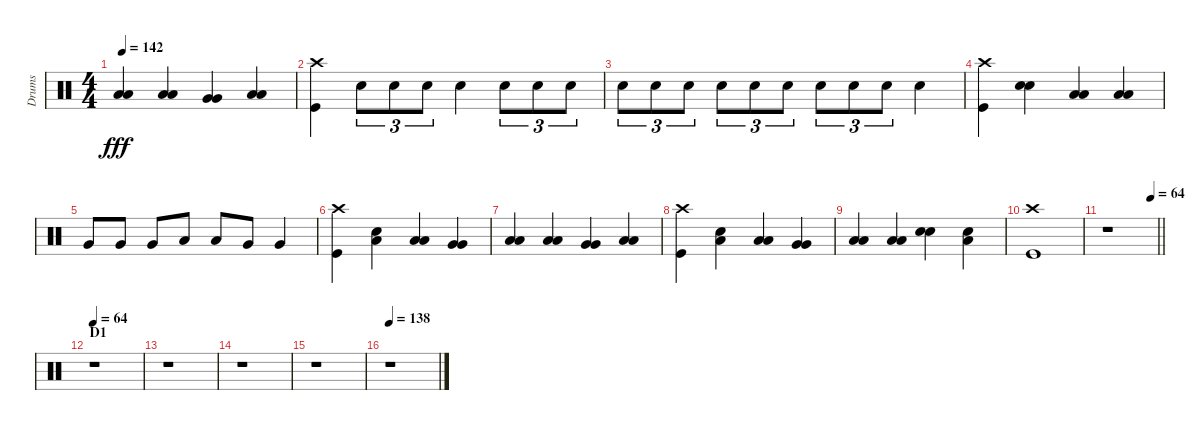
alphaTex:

\track ("Drums" "Drums") {instrument percussion}
\staff {score}
\articulation defaults
\ts (4 4)
\tempo 142
\clef neutral
\ks c
("Low Floor Tom (hit)" "Low Floor Tom (hit)").4{dy fff} ("Low Tom (hit)" "Low Tom (hit)").4 ("Very Low Tom (hit)" "Very Low Tom (hit)").4 ("Low Floor Tom (hit)" "Low Floor Tom (hit)").4 |
("Crash high (hit)" "Kick (hit)").4 "Snare (hit) 2".8{tu (3 2)} "Snare (hit) 2".8{tu (3 2)} "Snare (hit) 2".8{tu (3 2)} "Snare (hit) 2".4 "Snare (hit) 2".8{tu (3 2)} "Snare (hit) 2".8{tu (3 2)} "Snare (hit) 2".8{tu (3 2)} |
"Snare (hit) 2".8{tu (3 2)} "Snare (hit) 2".8{tu (3 2)} "Snare (hit) 2".8{tu (3 2)} "Snare (hit) 2".8{tu (3 2)} "Snare (hit) 2".8{tu (3 2)} "Snare (hit) 2".8{tu (3 2)} "Snare (hit) 2".8{tu (3 2)} "Snare (hit) 2".8{tu (3 2)} "Snare (hit) 2".8{tu (3 2)} "Snare (hit) 2".4 |
("Crash high (hit)" "Kick (hit)").4 ("Snare (hit) 2" "Snare (hit) 2").4 ("Low Tom (hit)" "Low Tom (hit)").4 ("Low Floor Tom (hit)" "Low Floor Tom (hit)").4 |
"Very Low Tom (hit)".8 "Very Low Tom (hit)".8 "Very Low Tom (hit)".8 "Low Floor Tom (hit)".8 "Low Floor Tom (hit)".8 "Very Low Tom (hit)".8 "Very Low Tom (hit)".4 |
("Crash high (hit)" "Kick (hit)").4 ("Snare (hit) 2" "Low Tom (hit)").4 ("Low Tom (hit)" "Low Tom (hit)").4 ("Very Low Tom (hit)" "Very Low Tom (hit)").4 |
("Low Floor Tom (hit)" "Low Floor Tom (hit)").4 ("Low Tom (hit)" "Low Tom (hit)").4 ("Very Low Tom (hit)" "Very Low Tom (hit)").4 ("Low Floor Tom (hit)" "Low Floor Tom (hit)").4 |
("Crash high (hit)" "Kick (hit)").4 ("Snare (hit) 2" "Low Tom (hit)").4 ("Low Tom (hit)" "Low Tom (hit)").4 ("Very Low Tom (hit)" "Very Low Tom (hit)").4 |
("Low Floor Tom (hit)" "Low Floor Tom (hit)").4 ("Low Tom (hit)" "Low Tom (hit)").4 ("Snare (hit) 2" "Snare (hit) 2").4 ("Snare (hit) 2" "Low Tom (hit)").4 |
("Crash high (hit)" "Kick (hit)").1 |
\tempo (64 0.875)
\barLineRight lightlight
r.1 |
\section ("" "D1")
\tempo 64
r.1 |
r.1 |
r.1 |
r.1 |
\tempo 138
r.1
